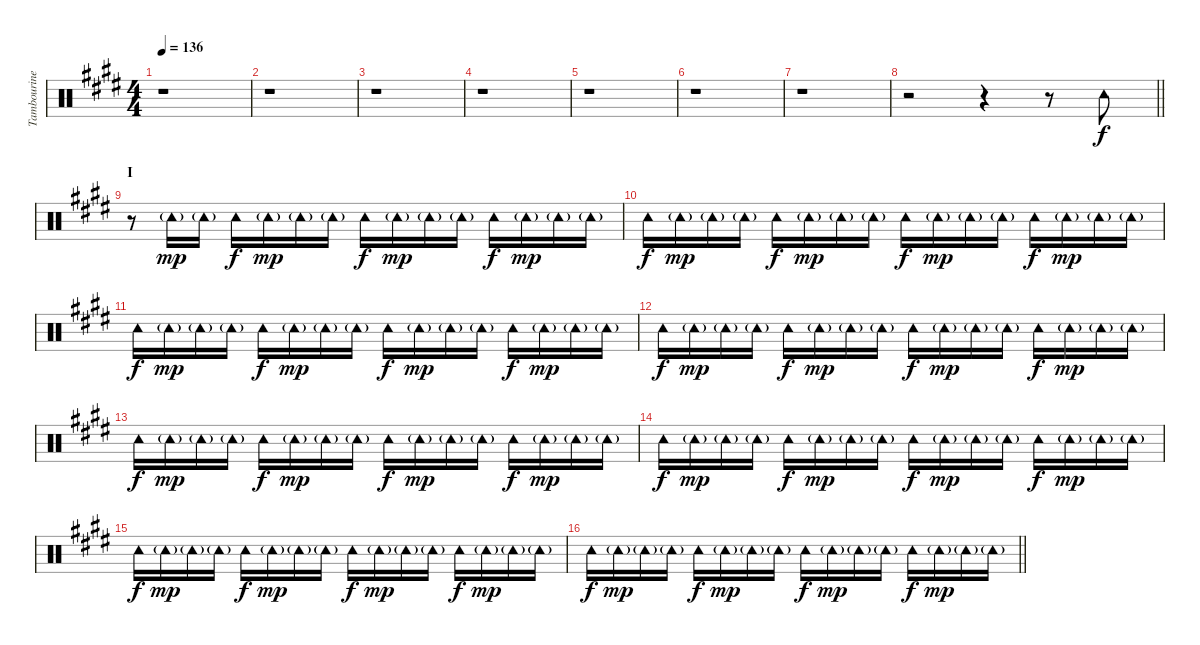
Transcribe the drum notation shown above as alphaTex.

\track ("Tambourine" "Tambourine") {instrument percussion}
\staff {score}
\articulation defaults
\ts (4 4)
\tempo 136
\clef neutral
\ks e
r.1{dy f} |
r.1 |
r.1 |
r.1 |
r.1 |
r.1 |
r.1 |
\barLineRight lightlight
r.2 r.4 r.8 "Tambourine (hit)".8 |
\section ("" "I")
r.8 "Tambourine (hit)"{g}.16{dy mp} "Tambourine (hit)"{g}.16 "Tambourine (hit)".16{dy f} "Tambourine (hit)"{g}.16{dy mp} "Tambourine (hit)"{g}.16 "Tambourine (hit)"{g}.16 "Tambourine (hit)".16{dy f} "Tambourine (hit)"{g}.16{dy mp} "Tambourine (hit)"{g}.16 "Tambourine (hit)"{g}.16 "Tambourine (hit)".16{dy f} "Tambourine (hit)"{g}.16{dy mp} "Tambourine (hit)"{g}.16 "Tambourine (hit)"{g}.16 |
"Tambourine (hit)".16{dy f} "Tambourine (hit)"{g}.16{dy mp} "Tambourine (hit)"{g}.16 "Tambourine (hit)"{g}.16 "Tambourine (hit)".16{dy f} "Tambourine (hit)"{g}.16{dy mp} "Tambourine (hit)"{g}.16 "Tambourine (hit)"{g}.16 "Tambourine (hit)".16{dy f} "Tambourine (hit)"{g}.16{dy mp} "Tambourine (hit)"{g}.16 "Tambourine (hit)"{g}.16 "Tambourine (hit)".16{dy f} "Tambourine (hit)"{g}.16{dy mp} "Tambourine (hit)"{g}.16 "Tambourine (hit)"{g}.16 |
"Tambourine (hit)".16{dy f} "Tambourine (hit)"{g}.16{dy mp} "Tambourine (hit)"{g}.16 "Tambourine (hit)"{g}.16 "Tambourine (hit)".16{dy f} "Tambourine (hit)"{g}.16{dy mp} "Tambourine (hit)"{g}.16 "Tambourine (hit)"{g}.16 "Tambourine (hit)".16{dy f} "Tambourine (hit)"{g}.16{dy mp} "Tambourine (hit)"{g}.16 "Tambourine (hit)"{g}.16 "Tambourine (hit)".16{dy f} "Tambourine (hit)"{g}.16{dy mp} "Tambourine (hit)"{g}.16 "Tambourine (hit)"{g}.16 |
"Tambourine (hit)".16{dy f} "Tambourine (hit)"{g}.16{dy mp} "Tambourine (hit)"{g}.16 "Tambourine (hit)"{g}.16 "Tambourine (hit)".16{dy f} "Tambourine (hit)"{g}.16{dy mp} "Tambourine (hit)"{g}.16 "Tambourine (hit)"{g}.16 "Tambourine (hit)".16{dy f} "Tambourine (hit)"{g}.16{dy mp} "Tambourine (hit)"{g}.16 "Tambourine (hit)"{g}.16 "Tambourine (hit)".16{dy f} "Tambourine (hit)"{g}.16{dy mp} "Tambourine (hit)"{g}.16 "Tambourine (hit)"{g}.16 |
"Tambourine (hit)".16{dy f} "Tambourine (hit)"{g}.16{dy mp} "Tambourine (hit)"{g}.16 "Tambourine (hit)"{g}.16 "Tambourine (hit)".16{dy f} "Tambourine (hit)"{g}.16{dy mp} "Tambourine (hit)"{g}.16 "Tambourine (hit)"{g}.16 "Tambourine (hit)".16{dy f} "Tambourine (hit)"{g}.16{dy mp} "Tambourine (hit)"{g}.16 "Tambourine (hit)"{g}.16 "Tambourine (hit)".16{dy f} "Tambourine (hit)"{g}.16{dy mp} "Tambourine (hit)"{g}.16 "Tambourine (hit)"{g}.16 |
"Tambourine (hit)".16{dy f} "Tambourine (hit)"{g}.16{dy mp} "Tambourine (hit)"{g}.16 "Tambourine (hit)"{g}.16 "Tambourine (hit)".16{dy f} "Tambourine (hit)"{g}.16{dy mp} "Tambourine (hit)"{g}.16 "Tambourine (hit)"{g}.16 "Tambourine (hit)".16{dy f} "Tambourine (hit)"{g}.16{dy mp} "Tambourine (hit)"{g}.16 "Tambourine (hit)"{g}.16 "Tambourine (hit)".16{dy f} "Tambourine (hit)"{g}.16{dy mp} "Tambourine (hit)"{g}.16 "Tambourine (hit)"{g}.16 |
"Tambourine (hit)".16{dy f} "Tambourine (hit)"{g}.16{dy mp} "Tambourine (hit)"{g}.16 "Tambourine (hit)"{g}.16 "Tambourine (hit)".16{dy f} "Tambourine (hit)"{g}.16{dy mp} "Tambourine (hit)"{g}.16 "Tambourine (hit)"{g}.16 "Tambourine (hit)".16{dy f} "Tambourine (hit)"{g}.16{dy mp} "Tambourine (hit)"{g}.16 "Tambourine (hit)"{g}.16 "Tambourine (hit)".16{dy f} "Tambourine (hit)"{g}.16{dy mp} "Tambourine (hit)"{g}.16 "Tambourine (hit)"{g}.16 |
\barLineRight lightlight "Tambourine (hit)".16{dy f} "Tambourine (hit)"{g}.16{dy mp} "Tambourine (hit)"{g}.16 "Tambourine (hit)"{g}.16 "Tambourine (hit)".16{dy f} "Tambourine (hit)"{g}.16{dy mp} "Tambourine (hit)"{g}.16 "Tambourine (hit)"{g}.16 "Tambourine (hit)".16{dy f} "Tambourine (hit)"{g}.16{dy mp} "Tambourine (hit)"{g}.16 "Tambourine (hit)"{g}.16 "Tambourine (hit)".16{dy f} "Tambourine (hit)"{g}.16{dy mp} "Tambourine (hit)"{g}.16 "Tambourine (hit)"{g}.16
